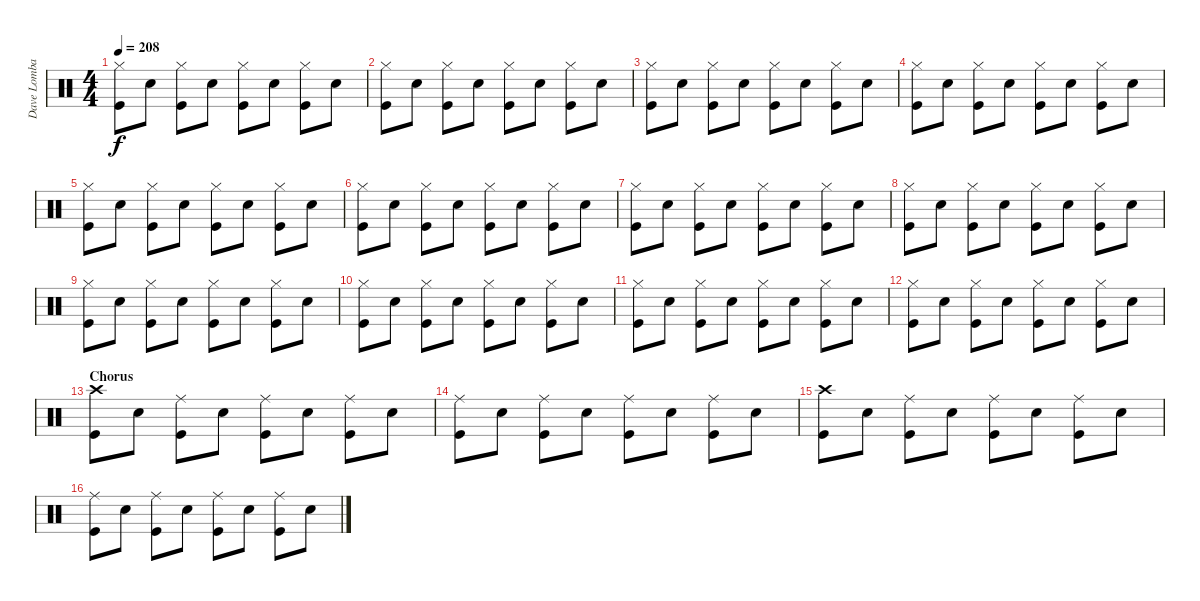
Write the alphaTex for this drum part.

\track ("Dave Lombardo" "Dave Lomba") {instrument percussion}
\staff {score}
\articulation defaults
\ts (4 4)
\tempo 208
\clef neutral
\ks c
("Hi-Hat (closed)" "Kick (hit)").8{dy f} "Electric Snare (hit)".8 ("Hi-Hat (closed)" "Kick (hit)").8 "Electric Snare (hit)".8 ("Hi-Hat (closed)" "Kick (hit)").8 "Electric Snare (hit)".8 ("Hi-Hat (closed)" "Kick (hit)").8 "Electric Snare (hit)".8 |
("Hi-Hat (closed)" "Kick (hit)").8 "Electric Snare (hit)".8 ("Hi-Hat (closed)" "Kick (hit)").8 "Electric Snare (hit)".8 ("Hi-Hat (closed)" "Kick (hit)").8 "Electric Snare (hit)".8 ("Hi-Hat (closed)" "Kick (hit)").8 "Electric Snare (hit)".8 |
("Hi-Hat (closed)" "Kick (hit)").8 "Electric Snare (hit)".8 ("Hi-Hat (closed)" "Kick (hit)").8 "Electric Snare (hit)".8 ("Hi-Hat (closed)" "Kick (hit)").8 "Electric Snare (hit)".8 ("Hi-Hat (closed)" "Kick (hit)").8 "Electric Snare (hit)".8 |
("Hi-Hat (closed)" "Kick (hit)").8 "Electric Snare (hit)".8 ("Hi-Hat (closed)" "Kick (hit)").8 "Electric Snare (hit)".8 ("Hi-Hat (closed)" "Kick (hit)").8 "Electric Snare (hit)".8 ("Hi-Hat (closed)" "Kick (hit)").8 "Electric Snare (hit)".8 |
("Hi-Hat (closed)" "Kick (hit)").8 "Electric Snare (hit)".8 ("Hi-Hat (closed)" "Kick (hit)").8 "Electric Snare (hit)".8 ("Hi-Hat (closed)" "Kick (hit)").8 "Electric Snare (hit)".8 ("Hi-Hat (closed)" "Kick (hit)").8 "Electric Snare (hit)".8 |
("Hi-Hat (closed)" "Kick (hit)").8 "Electric Snare (hit)".8 ("Hi-Hat (closed)" "Kick (hit)").8 "Electric Snare (hit)".8 ("Hi-Hat (closed)" "Kick (hit)").8 "Electric Snare (hit)".8 ("Hi-Hat (closed)" "Kick (hit)").8 "Electric Snare (hit)".8 |
("Hi-Hat (closed)" "Kick (hit)").8 "Electric Snare (hit)".8 ("Hi-Hat (closed)" "Kick (hit)").8 "Electric Snare (hit)".8 ("Hi-Hat (closed)" "Kick (hit)").8 "Electric Snare (hit)".8 ("Hi-Hat (closed)" "Kick (hit)").8 "Electric Snare (hit)".8 |
("Hi-Hat (closed)" "Kick (hit)").8 "Electric Snare (hit)".8 ("Hi-Hat (closed)" "Kick (hit)").8 "Electric Snare (hit)".8 ("Hi-Hat (closed)" "Kick (hit)").8 "Electric Snare (hit)".8 ("Hi-Hat (closed)" "Kick (hit)").8 "Electric Snare (hit)".8 |
("Hi-Hat (closed)" "Kick (hit)").8 "Electric Snare (hit)".8 ("Hi-Hat (closed)" "Kick (hit)").8 "Electric Snare (hit)".8 ("Hi-Hat (closed)" "Kick (hit)").8 "Electric Snare (hit)".8 ("Hi-Hat (closed)" "Kick (hit)").8 "Electric Snare (hit)".8 |
("Hi-Hat (closed)" "Kick (hit)").8 "Electric Snare (hit)".8 ("Hi-Hat (closed)" "Kick (hit)").8 "Electric Snare (hit)".8 ("Hi-Hat (closed)" "Kick (hit)").8 "Electric Snare (hit)".8 ("Hi-Hat (closed)" "Kick (hit)").8 "Electric Snare (hit)".8 |
("Hi-Hat (closed)" "Kick (hit)").8 "Electric Snare (hit)".8 ("Hi-Hat (closed)" "Kick (hit)").8 "Electric Snare (hit)".8 ("Hi-Hat (closed)" "Kick (hit)").8 "Electric Snare (hit)".8 ("Hi-Hat (closed)" "Kick (hit)").8 "Electric Snare (hit)".8 |
("Hi-Hat (closed)" "Kick (hit)").8 "Electric Snare (hit)".8 ("Hi-Hat (closed)" "Kick (hit)").8 "Electric Snare (hit)".8 ("Hi-Hat (closed)" "Kick (hit)").8 "Electric Snare (hit)".8 ("Hi-Hat (closed)" "Kick (hit)").8 "Electric Snare (hit)".8 |
\section ("" "Chorus")
("Crash high (hit)" "Kick (hit)").8 "Electric Snare (hit)".8 ("Ride (middle)" "Kick (hit)").8 "Electric Snare (hit)".8 ("Ride (middle)" "Kick (hit)").8 "Electric Snare (hit)".8 ("Ride (middle)" "Kick (hit)").8 "Electric Snare (hit)".8 |
("Ride (middle)" "Kick (hit)").8 "Electric Snare (hit)".8 ("Ride (middle)" "Kick (hit)").8 "Electric Snare (hit)".8 ("Ride (middle)" "Kick (hit)").8 "Electric Snare (hit)".8 ("Ride (middle)" "Kick (hit)").8 "Electric Snare (hit)".8 |
("Crash high (hit)" "Kick (hit)").8 "Electric Snare (hit)".8 ("Ride (middle)" "Kick (hit)").8 "Electric Snare (hit)".8 ("Ride (middle)" "Kick (hit)").8 "Electric Snare (hit)".8 ("Ride (middle)" "Kick (hit)").8 "Electric Snare (hit)".8 |
("Ride (middle)" "Kick (hit)").8 "Electric Snare (hit)".8 ("Ride (middle)" "Kick (hit)").8 "Electric Snare (hit)".8 ("Ride (middle)" "Kick (hit)").8 "Electric Snare (hit)".8 ("Ride (middle)" "Kick (hit)").8 "Electric Snare (hit)".8
